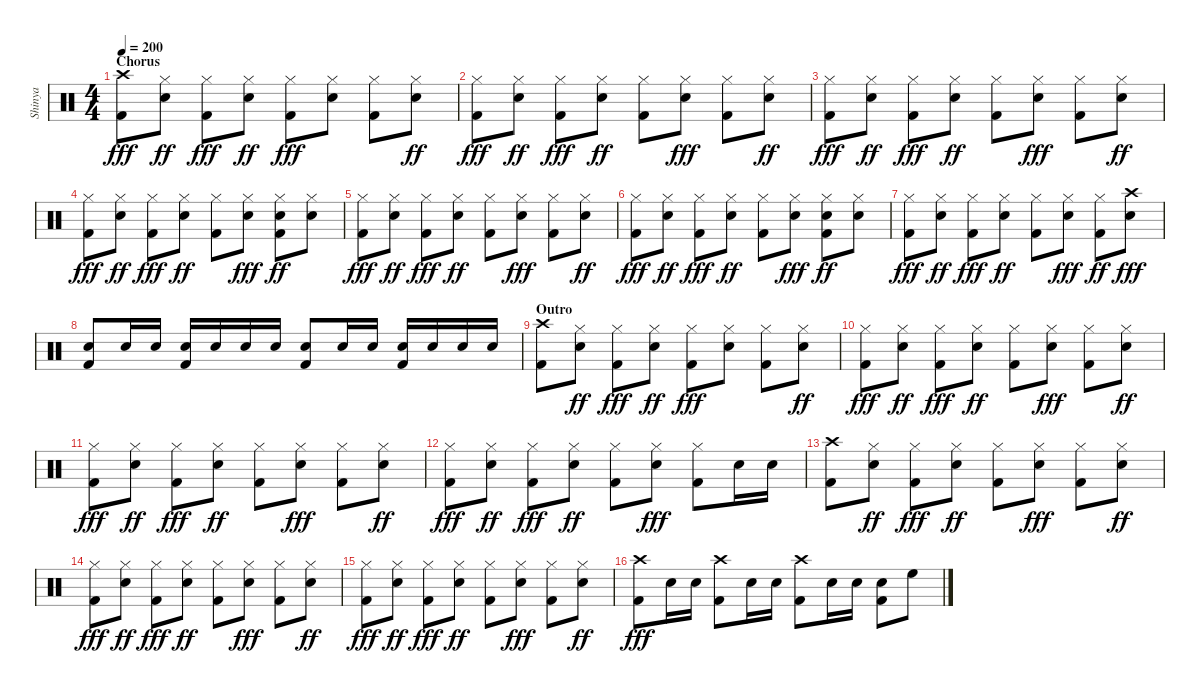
\track ("Shinya" "Shinya") {instrument percussion}
\staff {score}
\articulation defaults
\ts (4 4)
\section ("" "Chorus")
\tempo 200
\clef neutral
\ks c
("Crash high (hit)" "Kick (hit) 2").8{dy fff} ("Snare (hit) 2" "Hi-Hat (closed)").8{dy ff} ("Hi-Hat (closed)" "Kick (hit) 2").8{dy fff} ("Snare (hit) 2" "Hi-Hat (closed)").8{dy ff} ("Hi-Hat (closed)" "Kick (hit) 2").8{dy fff} ("Hi-Hat (closed)" "Snare (hit) 2").8 ("Hi-Hat (closed)" "Kick (hit) 2").8 ("Snare (hit) 2" "Hi-Hat (closed)").8{dy ff} |
("Hi-Hat (closed)" "Kick (hit) 2").8{dy fff} ("Snare (hit) 2" "Hi-Hat (closed)").8{dy ff} ("Hi-Hat (closed)" "Kick (hit) 2").8{dy fff} ("Snare (hit) 2" "Hi-Hat (closed)").8{dy ff} ("Kick (hit) 2" "Hi-Hat (closed)").8 ("Hi-Hat (closed)" "Snare (hit) 2").8{dy fff} ("Hi-Hat (closed)" "Kick (hit) 2").8 ("Snare (hit) 2" "Hi-Hat (closed)").8{dy ff} |
("Hi-Hat (closed)" "Kick (hit) 2").8{dy fff} ("Snare (hit) 2" "Hi-Hat (closed)").8{dy ff} ("Hi-Hat (closed)" "Kick (hit) 2").8{dy fff} ("Snare (hit) 2" "Hi-Hat (closed)").8{dy ff} ("Kick (hit) 2" "Hi-Hat (closed)").8 ("Hi-Hat (closed)" "Snare (hit) 2").8{dy fff} ("Hi-Hat (closed)" "Kick (hit) 2").8 ("Snare (hit) 2" "Hi-Hat (closed)").8{dy ff} |
("Hi-Hat (closed)" "Kick (hit) 2").8{dy fff} ("Snare (hit) 2" "Hi-Hat (closed)").8{dy ff} ("Hi-Hat (closed)" "Kick (hit) 2").8{dy fff} ("Snare (hit) 2" "Hi-Hat (closed)").8{dy ff} ("Kick (hit) 2" "Hi-Hat (closed)").8 ("Hi-Hat (closed)" "Snare (hit) 2").8{dy fff} ("Kick (hit) 2" "Snare (hit) 2" "Hi-Hat (closed)").8{dy ff} ("Snare (hit) 2" "Hi-Hat (closed)").8 |
("Hi-Hat (closed)" "Kick (hit) 2").8{dy fff} ("Snare (hit) 2" "Hi-Hat (closed)").8{dy ff} ("Hi-Hat (closed)" "Kick (hit) 2").8{dy fff} ("Snare (hit) 2" "Hi-Hat (closed)").8{dy ff} ("Kick (hit) 2" "Hi-Hat (closed)").8 ("Hi-Hat (closed)" "Snare (hit) 2").8{dy fff} ("Hi-Hat (closed)" "Kick (hit) 2").8 ("Snare (hit) 2" "Hi-Hat (closed)").8{dy ff} |
("Hi-Hat (closed)" "Kick (hit) 2").8{dy fff} ("Snare (hit) 2" "Hi-Hat (closed)").8{dy ff} ("Hi-Hat (closed)" "Kick (hit) 2").8{dy fff} ("Snare (hit) 2" "Hi-Hat (closed)").8{dy ff} ("Kick (hit) 2" "Hi-Hat (closed)").8 ("Hi-Hat (closed)" "Snare (hit) 2").8{dy fff} ("Kick (hit) 2" "Snare (hit) 2" "Hi-Hat (closed)").8{dy ff} ("Snare (hit) 2" "Hi-Hat (closed)").8 |
("Hi-Hat (closed)" "Kick (hit) 2").8{dy fff} ("Snare (hit) 2" "Hi-Hat (closed)").8{dy ff} ("Hi-Hat (closed)" "Kick (hit) 2").8{dy fff} ("Snare (hit) 2" "Hi-Hat (closed)").8{dy ff} ("Kick (hit) 2" "Hi-Hat (closed)").8 ("Hi-Hat (closed)" "Snare (hit) 2").8{dy fff} ("Kick (hit) 2" "Hi-Hat (closed)").8{dy ff} ("Snare (hit) 2" "Crash high (hit)").8{dy fff} |
("Snare (hit) 2" "Kick (hit) 2").8 "Snare (hit) 2".16 "Snare (hit) 2".16 ("Snare (hit) 2" "Kick (hit) 2").16 "Snare (hit) 2".16 "Snare (hit) 2".16 "Snare (hit) 2".16 ("Snare (hit) 2" "Kick (hit) 2").8 "Snare (hit) 2".16 "Snare (hit) 2".16 ("Snare (hit) 2" "Kick (hit) 2").16 "Snare (hit) 2".16 "Snare (hit) 2".16 "Snare (hit) 2".16 |
\section ("" "Outro")
("Crash high (hit)" "Kick (hit) 2").8 ("Snare (hit) 2" "Hi-Hat (closed)").8{dy ff} ("Hi-Hat (closed)" "Kick (hit) 2").8{dy fff} ("Snare (hit) 2" "Hi-Hat (closed)").8{dy ff} ("Hi-Hat (closed)" "Kick (hit) 2").8{dy fff} ("Hi-Hat (closed)" "Snare (hit) 2").8 ("Hi-Hat (closed)" "Kick (hit) 2").8 ("Snare (hit) 2" "Hi-Hat (closed)").8{dy ff} |
("Hi-Hat (closed)" "Kick (hit) 2").8{dy fff} ("Snare (hit) 2" "Hi-Hat (closed)").8{dy ff} ("Hi-Hat (closed)" "Kick (hit) 2").8{dy fff} ("Snare (hit) 2" "Hi-Hat (closed)").8{dy ff} ("Kick (hit) 2" "Hi-Hat (closed)").8 ("Hi-Hat (closed)" "Snare (hit) 2").8{dy fff} ("Hi-Hat (closed)" "Kick (hit) 2").8 ("Snare (hit) 2" "Hi-Hat (closed)").8{dy ff} |
("Hi-Hat (closed)" "Kick (hit) 2").8{dy fff} ("Snare (hit) 2" "Hi-Hat (closed)").8{dy ff} ("Hi-Hat (closed)" "Kick (hit) 2").8{dy fff} ("Snare (hit) 2" "Hi-Hat (closed)").8{dy ff} ("Kick (hit) 2" "Hi-Hat (closed)").8 ("Hi-Hat (closed)" "Snare (hit) 2").8{dy fff} ("Hi-Hat (closed)" "Kick (hit) 2").8 ("Snare (hit) 2" "Hi-Hat (closed)").8{dy ff} |
("Hi-Hat (closed)" "Kick (hit) 2").8{dy fff} ("Snare (hit) 2" "Hi-Hat (closed)").8{dy ff} ("Hi-Hat (closed)" "Kick (hit) 2").8{dy fff} ("Snare (hit) 2" "Hi-Hat (closed)").8{dy ff} ("Kick (hit) 2" "Hi-Hat (closed)").8 ("Hi-Hat (closed)" "Snare (hit) 2").8{dy fff} ("Hi-Hat (closed)" "Kick (hit) 2").8 "Snare (hit) 2".16 "Snare (hit) 2".16 |
("Crash high (hit)" "Kick (hit) 2").8 ("Snare (hit) 2" "Hi-Hat (closed)").8{dy ff} ("Hi-Hat (closed)" "Kick (hit) 2").8{dy fff} ("Snare (hit) 2" "Hi-Hat (closed)").8{dy ff} ("Kick (hit) 2" "Hi-Hat (closed)").8 ("Hi-Hat (closed)" "Snare (hit) 2").8{dy fff} ("Hi-Hat (closed)" "Kick (hit) 2").8 ("Snare (hit) 2" "Hi-Hat (closed)").8{dy ff} |
("Hi-Hat (closed)" "Kick (hit) 2").8{dy fff} ("Snare (hit) 2" "Hi-Hat (closed)").8{dy ff} ("Hi-Hat (closed)" "Kick (hit) 2").8{dy fff} ("Snare (hit) 2" "Hi-Hat (closed)").8{dy ff} ("Kick (hit) 2" "Hi-Hat (closed)").8 ("Hi-Hat (closed)" "Snare (hit) 2").8{dy fff} ("Hi-Hat (closed)" "Kick (hit) 2").8 ("Snare (hit) 2" "Hi-Hat (closed)").8{dy ff} |
("Hi-Hat (closed)" "Kick (hit) 2").8{dy fff} ("Snare (hit) 2" "Hi-Hat (closed)").8{dy ff} ("Hi-Hat (closed)" "Kick (hit) 2").8{dy fff} ("Snare (hit) 2" "Hi-Hat (closed)").8{dy ff} ("Kick (hit) 2" "Hi-Hat (closed)").8 ("Hi-Hat (closed)" "Snare (hit) 2").8{dy fff} ("Hi-Hat (closed)" "Kick (hit) 2").8 ("Snare (hit) 2" "Hi-Hat (closed)").8{dy ff} |
("Crash high (hit)" "Kick (hit) 2").8{dy fff} "Snare (hit) 2".16 "Snare (hit) 2".16 ("Crash high (hit)" "Kick (hit) 2").8 "Snare (hit) 2".16 "Snare (hit) 2".16 ("Crash high (hit)" "Kick (hit) 2").8 "Snare (hit) 2".16 "Snare (hit) 2".16 ("Snare (hit) 2" "Kick (hit) 2").8 "High Floor Tom (hit)".8
